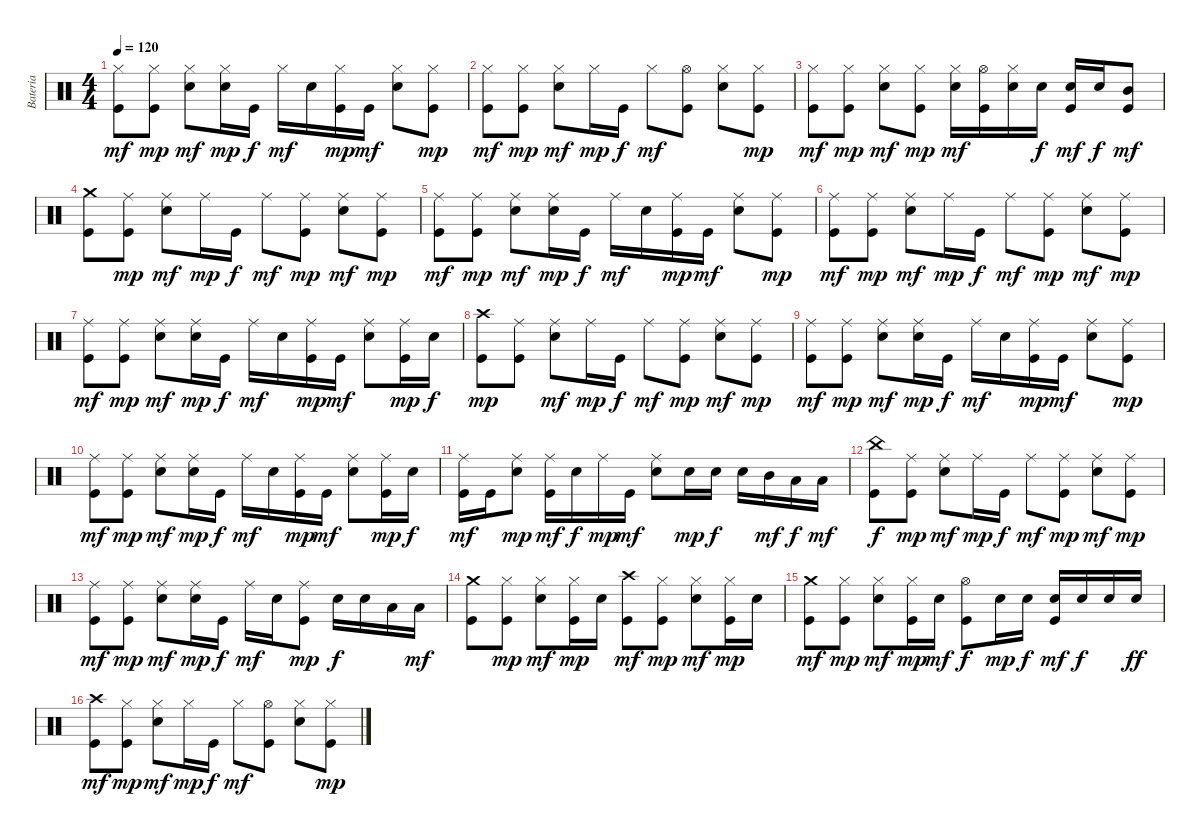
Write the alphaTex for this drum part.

\track ("Bateria" "Bateria") {instrument percussion}
\staff {score}
\articulation defaults
\ts (4 4)
\tempo 120
\clef neutral
\ks c
("Kick (hit)" "Hi-Hat (closed)").8{dy mf} ("Kick (hit)" "Hi-Hat (closed)").8{dy mp} ("Snare (hit) 2" "Hi-Hat (closed)").8{dy mf} ("Snare (hit) 2" "Hi-Hat (closed)").16{dy mp} "Kick (hit)".16{dy f} "Hi-Hat (closed)".16{dy mf} "Snare (hit) 2".16 ("Kick (hit)" "Hi-Hat (closed)").16{dy mp} "Kick (hit)".16{dy mf} ("Snare (hit) 2" "Hi-Hat (closed)").8 ("Kick (hit)" "Hi-Hat (closed)").8{dy mp} |
("Kick (hit)" "Hi-Hat (closed)").8{dy mf} ("Kick (hit)" "Hi-Hat (closed)").8{dy mp} ("Snare (hit) 2" "Hi-Hat (closed)").8{dy mf} "Hi-Hat (closed)".16{dy mp} "Kick (hit)".16{dy f} "Hi-Hat (closed)".8{dy mf} ("Kick (hit)" "Hi-Hat (open)").8 ("Snare (hit) 2" "Hi-Hat (closed)").8 ("Kick (hit)" "Hi-Hat (closed)").8{dy mp} |
("Kick (hit)" "Hi-Hat (closed)").8{dy mf} ("Kick (hit)" "Hi-Hat (closed)").8{dy mp} ("Snare (hit) 2" "Hi-Hat (closed)").8{dy mf} ("Kick (hit)" "Hi-Hat (closed)").8{dy mp} ("Snare (hit) 2" "Hi-Hat (closed)").16{dy mf} ("Kick (hit)" "Hi-Hat (open)").16 ("Snare (hit) 2" "Hi-Hat (closed)").16 "Snare (hit) 2".16{dy f} ("Kick (hit)" "Snare (hit) 2").16{dy mf} "Snare (hit) 2".16{dy f} ("Kick (hit)" "Mid Tom (hit)").8{dy mf} |
("Kick (hit)" "Crash medium (hit)").8 ("Kick (hit)" "Ride (middle)").8{dy mp} ("Snare (hit) 2" "Ride (middle)").8{dy mf} "Ride (middle)".16{dy mp} "Kick (hit)".16{dy f} "Ride (middle)".8{dy mf} ("Kick (hit)" "Ride (middle)").8{dy mp} ("Snare (hit) 2" "Ride (middle)").8{dy mf} ("Kick (hit)" "Ride (middle)").8{dy mp} |
("Kick (hit)" "Ride (middle)").8{dy mf} ("Kick (hit)" "Ride (middle)").8{dy mp} ("Snare (hit) 2" "Ride (middle)").8{dy mf} ("Snare (hit) 2" "Ride (middle)").16{dy mp} "Kick (hit)".16{dy f} "Ride (middle)".16{dy mf} "Snare (hit) 2".16 ("Kick (hit)" "Ride (middle)").16{dy mp} "Kick (hit)".16{dy mf} ("Snare (hit) 2" "Ride (middle)").8 ("Kick (hit)" "Ride (middle)").8{dy mp} |
("Kick (hit)" "Ride (middle)").8{dy mf} ("Kick (hit)" "Ride (middle)").8{dy mp} ("Snare (hit) 2" "Ride (middle)").8{dy mf} "Ride (middle)".16{dy mp} "Kick (hit)".16{dy f} "Ride (middle)".8{dy mf} ("Kick (hit)" "Ride (middle)").8{dy mp} ("Snare (hit) 2" "Ride (middle)").8{dy mf} ("Kick (hit)" "Ride (middle)").8{dy mp} |
("Kick (hit)" "Ride (middle)").8{dy mf} ("Kick (hit)" "Ride (middle)").8{dy mp} ("Snare (hit) 2" "Ride (middle)").8{dy mf} ("Snare (hit) 2" "Ride (middle)").16{dy mp} "Kick (hit)".16{dy f} "Ride (middle)".16{dy mf} "Snare (hit) 2".16 ("Kick (hit)" "Ride (middle)").16{dy mp} "Kick (hit)".16{dy mf} ("Snare (hit) 2" "Ride (middle)").8 ("Kick (hit)" "Ride (middle)").16{dy mp} "Snare (hit) 2".16{dy f} |
("Kick (hit)" "Crash high (hit)").8{dy mp} ("Kick (hit)" "Ride (middle)").8 ("Snare (hit) 2" "Ride (middle)").8{dy mf} "Ride (middle)".16{dy mp} "Kick (hit)".16{dy f} "Ride (middle)".8{dy mf} ("Kick (hit)" "Ride (middle)").8{dy mp} ("Snare (hit) 2" "Ride (middle)").8{dy mf} ("Kick (hit)" "Ride (middle)").8{dy mp} |
("Kick (hit)" "Ride (middle)").8{dy mf} ("Kick (hit)" "Ride (middle)").8{dy mp} ("Snare (hit) 2" "Ride (middle)").8{dy mf} ("Snare (hit) 2" "Ride (middle)").16{dy mp} "Kick (hit)".16{dy f} "Ride (middle)".16{dy mf} "Snare (hit) 2".16 ("Kick (hit)" "Ride (middle)").16{dy mp} "Kick (hit)".16{dy mf} ("Snare (hit) 2" "Ride (middle)").8 ("Kick (hit)" "Ride (middle)").8{dy mp} |
("Kick (hit)" "Ride (middle)").8{dy mf} ("Kick (hit)" "Ride (middle)").8{dy mp} ("Snare (hit) 2" "Ride (middle)").8{dy mf} ("Snare (hit) 2" "Ride (middle)").16{dy mp} "Kick (hit)".16{dy f} "Ride (middle)".16{dy mf} "Snare (hit) 2".16 ("Kick (hit)" "Ride (middle)").16{dy mp} "Kick (hit)".16{dy mf} ("Snare (hit) 2" "Ride (middle)").8 ("Kick (hit)" "Ride (middle)").16{dy mp} "Snare (hit) 2".16{dy f} |
("Kick (hit)" "Ride (middle)").16{dy mf} "Kick (hit)".16 ("Snare (hit) 2" "Ride (middle)").8{dy mp} ("Kick (hit)" "Ride (middle)").16{dy mf} "Snare (hit) 2".16{dy f} "Ride (middle)".16{dy mp} "Kick (hit)".16{dy mf} ("Snare (hit) 2" "Ride (middle)").8 "Snare (hit) 2".16{dy mp} "Snare (hit) 2".16{dy f} "Snare (hit) 2".16 "Mid Tom (hit)".16{dy mf} "Low Tom (hit)".16{dy f} "Low Floor Tom (hit)".16{dy mf} |
("Kick (hit)" "China (hit)").8{dy f} ("Kick (hit)" "Ride (middle)").8{dy mp} ("Snare (hit) 2" "Ride (middle)").8{dy mf} "Ride (middle)".16{dy mp} "Kick (hit)".16{dy f} "Ride (middle)".8{dy mf} ("Kick (hit)" "Ride (middle)").8{dy mp} ("Snare (hit) 2" "Ride (middle)").8{dy mf} ("Kick (hit)" "Ride (middle)").8{dy mp} |
("Kick (hit)" "Ride (middle)").8{dy mf} ("Kick (hit)" "Ride (middle)").8{dy mp} ("Snare (hit) 2" "Ride (middle)").8{dy mf} ("Snare (hit) 2" "Ride (middle)").16{dy mp} "Kick (hit)".16{dy f} "Ride (middle)".16{dy mf} "Snare (hit) 2".16 ("Kick (hit)" "Ride (middle)").8{dy mp} "Snare (hit) 2".16{dy f} "Snare (hit) 2".16 "Low Tom (hit)".16 "Low Floor Tom (hit)".16{dy mf} |
("Kick (hit)" "Crash medium (hit)").8 ("Kick (hit)" "Hi-Hat (closed)").8{dy mp} ("Snare (hit) 2" "Hi-Hat (closed)").8{dy mf} ("Kick (hit)" "Hi-Hat (closed)").16{dy mp} "Snare (hit) 2".16 ("Kick (hit)" "Crash high (hit)").8{dy mf} ("Kick (hit)" "Hi-Hat (closed)").8{dy mp} ("Snare (hit) 2" "Hi-Hat (closed)").8{dy mf} ("Kick (hit)" "Hi-Hat (closed)").16{dy mp} "Snare (hit) 2".16 |
("Kick (hit)" "Crash medium (hit)").8{dy mf} ("Kick (hit)" "Hi-Hat (closed)").8{dy mp} ("Snare (hit) 2" "Hi-Hat (closed)").8{dy mf} ("Kick (hit)" "Hi-Hat (closed)").16{dy mp} "Snare (hit) 2".16{dy mf} ("Kick (hit)" "Hi-Hat (open)").8{dy f} "Snare (hit) 2".16{dy mp} "Snare (hit) 2".16{dy f} ("Kick (hit)" "Snare (hit) 2").16{dy mf} "Snare (hit) 2".16{dy f} "Snare (hit) 2".16 "Snare (hit) 2".16{dy ff} |
("Kick (hit)" "Crash high (hit)").8{dy mf} ("Kick (hit)" "Hi-Hat (closed)").8{dy mp} ("Snare (hit) 2" "Hi-Hat (closed)").8{dy mf} "Hi-Hat (closed)".16{dy mp} "Kick (hit)".16{dy f} "Hi-Hat (closed)".8{dy mf} ("Kick (hit)" "Hi-Hat (open)").8 ("Snare (hit) 2" "Hi-Hat (closed)").8 ("Kick (hit)" "Hi-Hat (closed)").8{dy mp}
